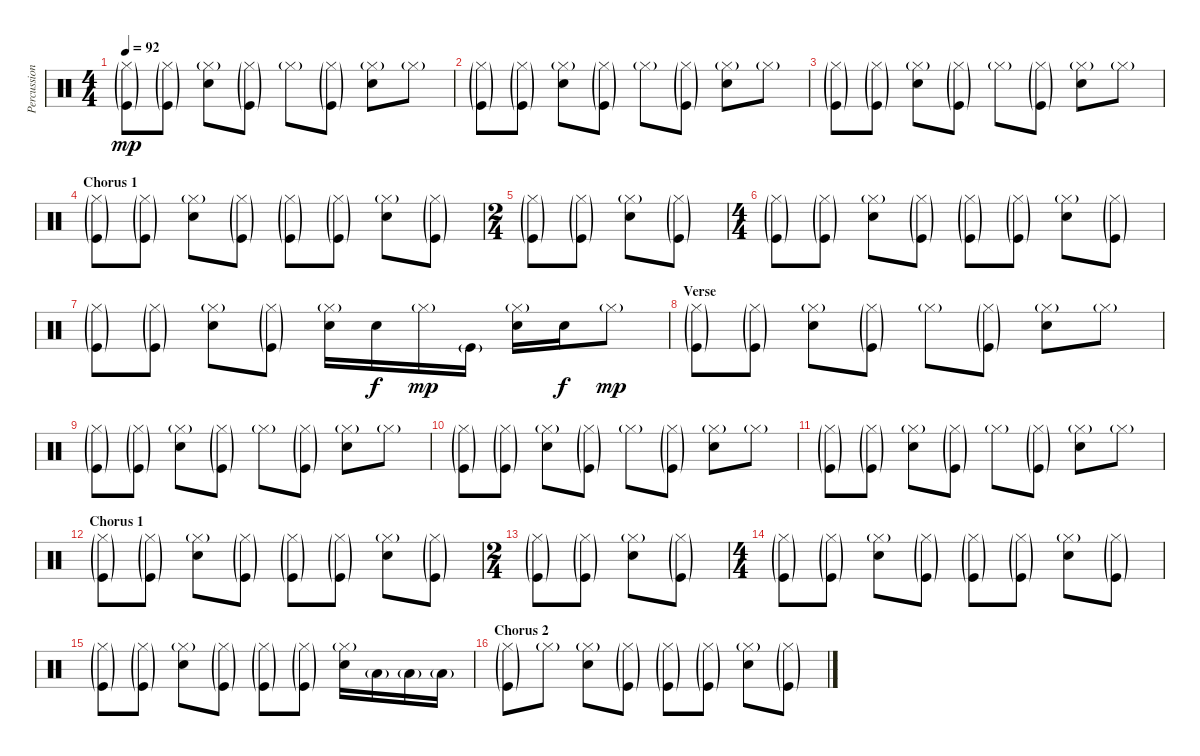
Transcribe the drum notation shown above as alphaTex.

\track ("Percussions" "Percussion") {instrument percussion}
\staff {score}
\articulation defaults
\ts (4 4)
\tempo 92
\clef neutral
\ks c
("Hi-Hat (closed)"{g} "Kick (hit)"{g}).8{dy mp} ("Hi-Hat (closed)"{g} "Kick (hit)"{g}).8 ("Hi-Hat (closed)"{g} "Snare (hit) 2").8 ("Hi-Hat (closed)"{g} "Kick (hit)"{g}).8 "Hi-Hat (closed)"{g}.8 ("Hi-Hat (closed)"{g} "Kick (hit)"{g}).8 ("Hi-Hat (closed)"{g} "Snare (hit) 2").8 "Hi-Hat (closed)"{g}.8 |
("Hi-Hat (closed)"{g} "Kick (hit)"{g}).8 ("Hi-Hat (closed)"{g} "Kick (hit)"{g}).8 ("Hi-Hat (closed)"{g} "Snare (hit) 2").8 ("Hi-Hat (closed)"{g} "Kick (hit)"{g}).8 "Hi-Hat (closed)"{g}.8 ("Hi-Hat (closed)"{g} "Kick (hit)"{g}).8 ("Hi-Hat (closed)"{g} "Snare (hit) 2").8 "Hi-Hat (closed)"{g}.8 |
("Hi-Hat (closed)"{g} "Kick (hit)"{g}).8 ("Hi-Hat (closed)"{g} "Kick (hit)"{g}).8 ("Hi-Hat (closed)"{g} "Snare (hit) 2").8 ("Hi-Hat (closed)"{g} "Kick (hit)"{g}).8 "Hi-Hat (closed)"{g}.8 ("Hi-Hat (closed)"{g} "Kick (hit)"{g}).8 ("Hi-Hat (closed)"{g} "Snare (hit) 2").8 "Hi-Hat (closed)"{g}.8 |
\section ("" "Chorus 1")
("Hi-Hat (closed)"{g} "Kick (hit)"{g}).8 ("Hi-Hat (closed)"{g} "Kick (hit)"{g}).8 ("Hi-Hat (closed)"{g} "Snare (hit) 2").8 ("Hi-Hat (closed)"{g} "Kick (hit)"{g}).8 ("Hi-Hat (closed)"{g} "Kick (hit)"{g}).8 ("Hi-Hat (closed)"{g} "Kick (hit)"{g}).8 ("Hi-Hat (closed)"{g} "Snare (hit) 2").8 ("Hi-Hat (closed)"{g} "Kick (hit)"{g}).8 |
\ts (2 4)
("Hi-Hat (closed)"{g} "Kick (hit)"{g}).8 ("Hi-Hat (closed)"{g} "Kick (hit)"{g}).8 ("Hi-Hat (closed)"{g} "Snare (hit) 2").8 ("Hi-Hat (closed)"{g} "Kick (hit)"{g}).8 |
\ts (4 4)
("Hi-Hat (closed)"{g} "Kick (hit)"{g}).8 ("Hi-Hat (closed)"{g} "Kick (hit)"{g}).8 ("Hi-Hat (closed)"{g} "Snare (hit) 2").8 ("Hi-Hat (closed)"{g} "Kick (hit)"{g}).8 ("Hi-Hat (closed)"{g} "Kick (hit)"{g}).8 ("Hi-Hat (closed)"{g} "Kick (hit)"{g}).8 ("Hi-Hat (closed)"{g} "Snare (hit) 2").8 ("Hi-Hat (closed)"{g} "Kick (hit)"{g}).8 |
("Hi-Hat (closed)"{g} "Kick (hit)"{g}).8 ("Hi-Hat (closed)"{g} "Kick (hit)"{g}).8 ("Hi-Hat (closed)"{g} "Snare (hit) 2").8 ("Hi-Hat (closed)"{g} "Kick (hit)"{g}).8 ("Hi-Hat (closed)"{g} "Snare (hit) 2").16 "Snare (hit) 2".16{dy f} "Hi-Hat (closed)"{g}.16{dy mp} "Kick (hit)"{g}.16 ("Hi-Hat (closed)"{g} "Snare (hit) 2").16 "Snare (hit) 2".16{dy f} "Hi-Hat (closed)"{g}.8{dy mp} |
\section ("" "Verse")
("Hi-Hat (closed)"{g} "Kick (hit)"{g}).8 ("Hi-Hat (closed)"{g} "Kick (hit)"{g}).8 ("Hi-Hat (closed)"{g} "Snare (hit) 2").8 ("Hi-Hat (closed)"{g} "Kick (hit)"{g}).8 "Hi-Hat (closed)"{g}.8 ("Hi-Hat (closed)"{g} "Kick (hit)"{g}).8 ("Hi-Hat (closed)"{g} "Snare (hit) 2").8 "Hi-Hat (closed)"{g}.8 |
("Hi-Hat (closed)"{g} "Kick (hit)"{g}).8 ("Hi-Hat (closed)"{g} "Kick (hit)"{g}).8 ("Hi-Hat (closed)"{g} "Snare (hit) 2").8 ("Hi-Hat (closed)"{g} "Kick (hit)"{g}).8 "Hi-Hat (closed)"{g}.8 ("Hi-Hat (closed)"{g} "Kick (hit)"{g}).8 ("Hi-Hat (closed)"{g} "Snare (hit) 2").8 "Hi-Hat (closed)"{g}.8 |
("Hi-Hat (closed)"{g} "Kick (hit)"{g}).8 ("Hi-Hat (closed)"{g} "Kick (hit)"{g}).8 ("Hi-Hat (closed)"{g} "Snare (hit) 2").8 ("Hi-Hat (closed)"{g} "Kick (hit)"{g}).8 "Hi-Hat (closed)"{g}.8 ("Hi-Hat (closed)"{g} "Kick (hit)"{g}).8 ("Hi-Hat (closed)"{g} "Snare (hit) 2").8 "Hi-Hat (closed)"{g}.8 |
("Hi-Hat (closed)"{g} "Kick (hit)"{g}).8 ("Hi-Hat (closed)"{g} "Kick (hit)"{g}).8 ("Hi-Hat (closed)"{g} "Snare (hit) 2").8 ("Hi-Hat (closed)"{g} "Kick (hit)"{g}).8 "Hi-Hat (closed)"{g}.8 ("Hi-Hat (closed)"{g} "Kick (hit)"{g}).8 ("Hi-Hat (closed)"{g} "Snare (hit) 2").8 "Hi-Hat (closed)"{g}.8 |
\section ("" "Chorus 1")
("Hi-Hat (closed)"{g} "Kick (hit)"{g}).8 ("Hi-Hat (closed)"{g} "Kick (hit)"{g}).8 ("Hi-Hat (closed)"{g} "Snare (hit) 2").8 ("Hi-Hat (closed)"{g} "Kick (hit)"{g}).8 ("Hi-Hat (closed)"{g} "Kick (hit)"{g}).8 ("Hi-Hat (closed)"{g} "Kick (hit)"{g}).8 ("Hi-Hat (closed)"{g} "Snare (hit) 2").8 ("Hi-Hat (closed)"{g} "Kick (hit)"{g}).8 |
\ts (2 4)
("Hi-Hat (closed)"{g} "Kick (hit)"{g}).8 ("Hi-Hat (closed)"{g} "Kick (hit)"{g}).8 ("Hi-Hat (closed)"{g} "Snare (hit) 2").8 ("Hi-Hat (closed)"{g} "Kick (hit)"{g}).8 |
\ts (4 4)
("Hi-Hat (closed)"{g} "Kick (hit)"{g}).8 ("Hi-Hat (closed)"{g} "Kick (hit)"{g}).8 ("Hi-Hat (closed)"{g} "Snare (hit) 2").8 ("Hi-Hat (closed)"{g} "Kick (hit)"{g}).8 ("Hi-Hat (closed)"{g} "Kick (hit)"{g}).8 ("Hi-Hat (closed)"{g} "Kick (hit)"{g}).8 ("Hi-Hat (closed)"{g} "Snare (hit) 2").8 ("Hi-Hat (closed)"{g} "Kick (hit)"{g}).8 |
("Hi-Hat (closed)"{g} "Kick (hit)"{g}).8 ("Hi-Hat (closed)"{g} "Kick (hit)"{g}).8 ("Hi-Hat (closed)"{g} "Snare (hit) 2").8 ("Hi-Hat (closed)"{g} "Kick (hit)"{g}).8 ("Hi-Hat (closed)"{g} "Kick (hit)"{g}).8 ("Hi-Hat (closed)"{g} "Kick (hit)"{g}).8 ("Hi-Hat (closed)"{g} "Snare (hit) 2").16 "Low Floor Tom (hit)"{g}.16 "Low Floor Tom (hit)"{g}.16 "Low Floor Tom (hit)"{g}.16 |
\section ("" "Chorus 2")
("Hi-Hat (closed)"{g} "Kick (hit)"{g}).8 "Hi-Hat (closed)"{g}.8 ("Hi-Hat (closed)"{g} "Snare (hit) 2").8 ("Hi-Hat (closed)"{g} "Kick (hit)"{g}).8 ("Hi-Hat (closed)"{g} "Kick (hit)"{g}).8 ("Hi-Hat (closed)"{g} "Kick (hit)"{g}).8 ("Hi-Hat (closed)"{g} "Snare (hit) 2").8 ("Hi-Hat (closed)"{g} "Kick (hit)"{g}).8
